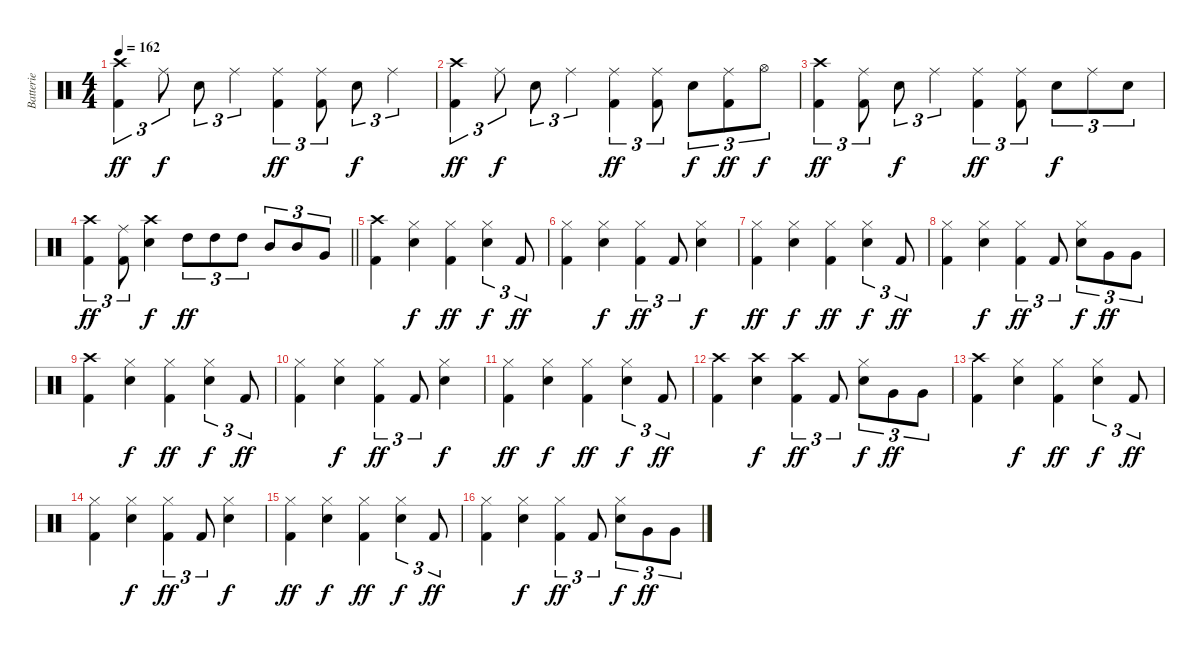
\track ("Batterie" "Batterie") {instrument percussion}
\staff {score}
\articulation defaults
\ts (4 4)
\tempo 162
\clef neutral
\ks c
("Crash high (hit)" "Kick (hit) 2").4{tu (3 2) dy ff} "Ride (middle)".8{tu (3 2) dy f} "Snare (hit) 2".8{tu (3 2)} "Ride (middle)".4{tu (3 2)} ("Ride (middle)" "Kick (hit) 2").4{tu (3 2) dy ff} ("Ride (middle)" "Kick (hit) 2").8{tu (3 2)} "Snare (hit) 2".8{tu (3 2) dy f} "Ride (middle)".4{tu (3 2)} |
("Crash high (hit)" "Kick (hit) 2").4{tu (3 2) dy ff} "Ride (middle)".8{tu (3 2) dy f} "Snare (hit) 2".8{tu (3 2)} "Ride (middle)".4{tu (3 2)} ("Ride (middle)" "Kick (hit) 2").4{tu (3 2) dy ff} ("Ride (middle)" "Kick (hit) 2").8{tu (3 2)} "Snare (hit) 2".8{tu (3 2) dy f} ("Ride (middle)" "Kick (hit) 2").8{tu (3 2) dy ff} "Hi-Hat (open)".8{tu (3 2) dy f} |
("Crash high (hit)" "Kick (hit) 2").4{tu (3 2) dy ff} ("Ride (middle)" "Kick (hit) 2").8{tu (3 2)} "Snare (hit) 2".8{tu (3 2) dy f} "Ride (middle)".4{tu (3 2)} ("Ride (middle)" "Kick (hit) 2").4{tu (3 2) dy ff} ("Ride (middle)" "Kick (hit) 2").8{tu (3 2)} "Snare (hit) 2".8{tu (3 2) dy f} "Ride (middle)".8{tu (3 2)} "Snare (hit) 2".8{tu (3 2)} |
\barLineRight lightlight
("Crash high (hit)" "Kick (hit) 2").4{tu (3 2) dy ff} ("Ride (middle)" "Kick (hit) 2").8{tu (3 2)} ("Crash high (hit)" "Snare (hit) 2").4{dy f} "High Tom (hit)".8{tu (3 2) dy ff} "High Tom (hit)".8{tu (3 2)} "High Tom (hit)".8{tu (3 2)} "Mid Tom (hit)".8{tu (3 2)} "Mid Tom (hit)".8{tu (3 2)} "Very Low Tom (hit)".8{tu (3 2)} |
("Crash high (hit)" "Kick (hit) 2").4 ("Hi-Hat (closed)" "Snare (hit) 2").4{dy f} ("Hi-Hat (closed)" "Kick (hit) 2").4{dy ff} ("Hi-Hat (closed)" "Snare (hit) 2").4{tu (3 2) dy f} "Kick (hit) 2".8{tu (3 2) dy ff} |
("Hi-Hat (closed)" "Kick (hit) 2").4 ("Hi-Hat (closed)" "Snare (hit) 2").4{dy f} ("Hi-Hat (closed)" "Kick (hit) 2").4{tu (3 2) dy ff} "Kick (hit) 2".8{tu (3 2)} ("Hi-Hat (closed)" "Snare (hit) 2").4{dy f} |
("Hi-Hat (closed)" "Kick (hit) 2").4{dy ff} ("Hi-Hat (closed)" "Snare (hit) 2").4{dy f} ("Hi-Hat (closed)" "Kick (hit) 2").4{dy ff} ("Hi-Hat (closed)" "Snare (hit) 2").4{tu (3 2) dy f} "Kick (hit) 2".8{tu (3 2) dy ff} |
("Hi-Hat (closed)" "Kick (hit) 2").4 ("Hi-Hat (closed)" "Snare (hit) 2").4{dy f} ("Hi-Hat (closed)" "Kick (hit) 2").4{tu (3 2) dy ff} "Kick (hit) 2".8{tu (3 2)} ("Hi-Hat (closed)" "Snare (hit) 2").8{tu (3 2) dy f} "Very Low Tom (hit)".8{tu (3 2) dy ff} "Very Low Tom (hit)".8{tu (3 2)} |
("Crash high (hit)" "Kick (hit) 2").4 ("Hi-Hat (closed)" "Snare (hit) 2").4{dy f} ("Hi-Hat (closed)" "Kick (hit) 2").4{dy ff} ("Hi-Hat (closed)" "Snare (hit) 2").4{tu (3 2) dy f} "Kick (hit) 2".8{tu (3 2) dy ff} |
("Hi-Hat (closed)" "Kick (hit) 2").4 ("Hi-Hat (closed)" "Snare (hit) 2").4{dy f} ("Hi-Hat (closed)" "Kick (hit) 2").4{tu (3 2) dy ff} "Kick (hit) 2".8{tu (3 2)} ("Hi-Hat (closed)" "Snare (hit) 2").4{dy f} |
("Hi-Hat (closed)" "Kick (hit) 2").4{dy ff} ("Hi-Hat (closed)" "Snare (hit) 2").4{dy f} ("Hi-Hat (closed)" "Kick (hit) 2").4{dy ff} ("Hi-Hat (closed)" "Snare (hit) 2").4{tu (3 2) dy f} "Kick (hit) 2".8{tu (3 2) dy ff} |
("Crash high (hit)" "Kick (hit) 2").4 ("Crash high (hit)" "Snare (hit) 2").4{dy f} ("Crash high (hit)" "Kick (hit) 2").4{tu (3 2) dy ff} "Kick (hit) 2".8{tu (3 2)} ("Hi-Hat (closed)" "Snare (hit) 2").8{tu (3 2) dy f} "Very Low Tom (hit)".8{tu (3 2) dy ff} "Very Low Tom (hit)".8{tu (3 2)} |
("Crash high (hit)" "Kick (hit) 2").4 ("Hi-Hat (closed)" "Snare (hit) 2").4{dy f} ("Hi-Hat (closed)" "Kick (hit) 2").4{dy ff} ("Hi-Hat (closed)" "Snare (hit) 2").4{tu (3 2) dy f} "Kick (hit) 2".8{tu (3 2) dy ff} |
("Hi-Hat (closed)" "Kick (hit) 2").4 ("Hi-Hat (closed)" "Snare (hit) 2").4{dy f} ("Hi-Hat (closed)" "Kick (hit) 2").4{tu (3 2) dy ff} "Kick (hit) 2".8{tu (3 2)} ("Hi-Hat (closed)" "Snare (hit) 2").4{dy f} |
("Hi-Hat (closed)" "Kick (hit) 2").4{dy ff} ("Hi-Hat (closed)" "Snare (hit) 2").4{dy f} ("Hi-Hat (closed)" "Kick (hit) 2").4{dy ff} ("Hi-Hat (closed)" "Snare (hit) 2").4{tu (3 2) dy f} "Kick (hit) 2".8{tu (3 2) dy ff} |
("Hi-Hat (closed)" "Kick (hit) 2").4 ("Hi-Hat (closed)" "Snare (hit) 2").4{dy f} ("Hi-Hat (closed)" "Kick (hit) 2").4{tu (3 2) dy ff} "Kick (hit) 2".8{tu (3 2)} ("Hi-Hat (closed)" "Snare (hit) 2").8{tu (3 2) dy f} "Very Low Tom (hit)".8{tu (3 2) dy ff} "Very Low Tom (hit)".8{tu (3 2)}
